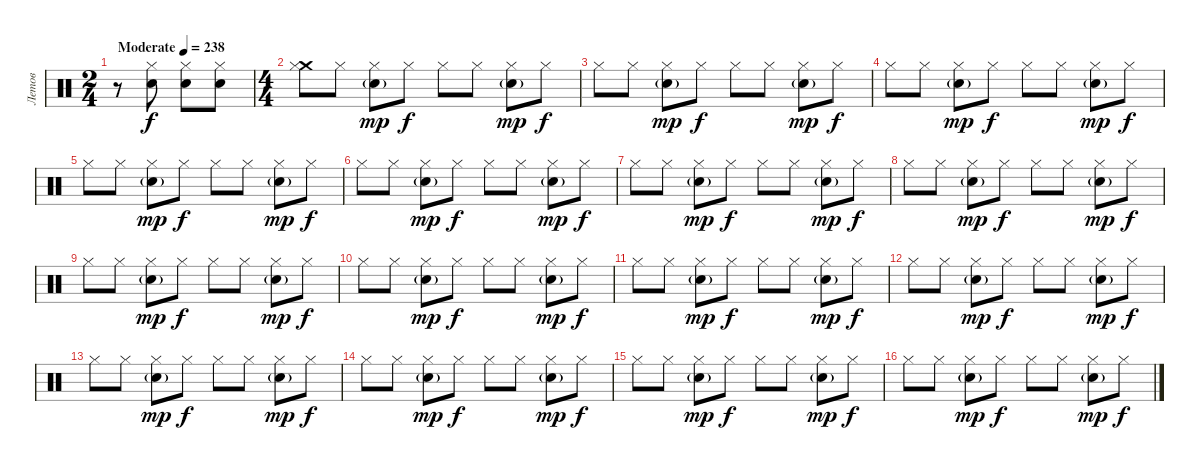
\track ("Летов" "Летов") {instrument percussion}
\staff {score}
\articulation defaults
\ts (2 4)
\tempo (238 "Moderate")
\clef neutral
\ks c
r.8{dy f} ("Hi-Hat (closed)" "Snare (hit) 2").8 ("Hi-Hat (closed)" "Snare (hit) 2").8 ("Hi-Hat (closed)" "Snare (hit) 2").8 |
\ts (4 4)
("Crash medium (hit)" "Hi-Hat (closed)").8 "Hi-Hat (closed)".8 ("Hi-Hat (closed)" "Snare (hit) 2"{g}).8{dy mp} "Hi-Hat (closed)".8{dy f} "Hi-Hat (closed)".8 "Hi-Hat (closed)".8 ("Hi-Hat (closed)" "Snare (hit) 2"{g}).8{dy mp} "Hi-Hat (closed)".8{dy f} |
"Hi-Hat (closed)".8 "Hi-Hat (closed)".8 ("Hi-Hat (closed)" "Snare (hit) 2"{g}).8{dy mp} "Hi-Hat (closed)".8{dy f} "Hi-Hat (closed)".8 "Hi-Hat (closed)".8 ("Hi-Hat (closed)" "Snare (hit) 2"{g}).8{dy mp} "Hi-Hat (closed)".8{dy f} |
"Hi-Hat (closed)".8 "Hi-Hat (closed)".8 ("Hi-Hat (closed)" "Snare (hit) 2"{g}).8{dy mp} "Hi-Hat (closed)".8{dy f} "Hi-Hat (closed)".8 "Hi-Hat (closed)".8 ("Hi-Hat (closed)" "Snare (hit) 2"{g}).8{dy mp} "Hi-Hat (closed)".8{dy f} |
"Hi-Hat (closed)".8 "Hi-Hat (closed)".8 ("Hi-Hat (closed)" "Snare (hit) 2"{g}).8{dy mp} "Hi-Hat (closed)".8{dy f} "Hi-Hat (closed)".8 "Hi-Hat (closed)".8 ("Hi-Hat (closed)" "Snare (hit) 2"{g}).8{dy mp} "Hi-Hat (closed)".8{dy f} |
"Hi-Hat (closed)".8 "Hi-Hat (closed)".8 ("Hi-Hat (closed)" "Snare (hit) 2"{g}).8{dy mp} "Hi-Hat (closed)".8{dy f} "Hi-Hat (closed)".8 "Hi-Hat (closed)".8 ("Hi-Hat (closed)" "Snare (hit) 2"{g}).8{dy mp} "Hi-Hat (closed)".8{dy f} |
"Hi-Hat (closed)".8 "Hi-Hat (closed)".8 ("Hi-Hat (closed)" "Snare (hit) 2"{g}).8{dy mp} "Hi-Hat (closed)".8{dy f} "Hi-Hat (closed)".8 "Hi-Hat (closed)".8 ("Hi-Hat (closed)" "Snare (hit) 2"{g}).8{dy mp} "Hi-Hat (closed)".8{dy f} |
"Hi-Hat (closed)".8 "Hi-Hat (closed)".8 ("Hi-Hat (closed)" "Snare (hit) 2"{g}).8{dy mp} "Hi-Hat (closed)".8{dy f} "Hi-Hat (closed)".8 "Hi-Hat (closed)".8 ("Hi-Hat (closed)" "Snare (hit) 2"{g}).8{dy mp} "Hi-Hat (closed)".8{dy f} |
"Hi-Hat (closed)".8 "Hi-Hat (closed)".8 ("Hi-Hat (closed)" "Snare (hit) 2"{g}).8{dy mp} "Hi-Hat (closed)".8{dy f} "Hi-Hat (closed)".8 "Hi-Hat (closed)".8 ("Hi-Hat (closed)" "Snare (hit) 2"{g}).8{dy mp} "Hi-Hat (closed)".8{dy f} |
"Hi-Hat (closed)".8 "Hi-Hat (closed)".8 ("Hi-Hat (closed)" "Snare (hit) 2"{g}).8{dy mp} "Hi-Hat (closed)".8{dy f} "Hi-Hat (closed)".8 "Hi-Hat (closed)".8 ("Hi-Hat (closed)" "Snare (hit) 2"{g}).8{dy mp} "Hi-Hat (closed)".8{dy f} |
"Hi-Hat (closed)".8 "Hi-Hat (closed)".8 ("Hi-Hat (closed)" "Snare (hit) 2"{g}).8{dy mp} "Hi-Hat (closed)".8{dy f} "Hi-Hat (closed)".8 "Hi-Hat (closed)".8 ("Hi-Hat (closed)" "Snare (hit) 2"{g}).8{dy mp} "Hi-Hat (closed)".8{dy f} |
"Hi-Hat (closed)".8 "Hi-Hat (closed)".8 ("Hi-Hat (closed)" "Snare (hit) 2"{g}).8{dy mp} "Hi-Hat (closed)".8{dy f} "Hi-Hat (closed)".8 "Hi-Hat (closed)".8 ("Hi-Hat (closed)" "Snare (hit) 2"{g}).8{dy mp} "Hi-Hat (closed)".8{dy f} |
"Hi-Hat (closed)".8 "Hi-Hat (closed)".8 ("Hi-Hat (closed)" "Snare (hit) 2"{g}).8{dy mp} "Hi-Hat (closed)".8{dy f} "Hi-Hat (closed)".8 "Hi-Hat (closed)".8 ("Hi-Hat (closed)" "Snare (hit) 2"{g}).8{dy mp} "Hi-Hat (closed)".8{dy f} |
"Hi-Hat (closed)".8 "Hi-Hat (closed)".8 ("Hi-Hat (closed)" "Snare (hit) 2"{g}).8{dy mp} "Hi-Hat (closed)".8{dy f} "Hi-Hat (closed)".8 "Hi-Hat (closed)".8 ("Hi-Hat (closed)" "Snare (hit) 2"{g}).8{dy mp} "Hi-Hat (closed)".8{dy f} |
"Hi-Hat (closed)".8 "Hi-Hat (closed)".8 ("Hi-Hat (closed)" "Snare (hit) 2"{g}).8{dy mp} "Hi-Hat (closed)".8{dy f} "Hi-Hat (closed)".8 "Hi-Hat (closed)".8 ("Hi-Hat (closed)" "Snare (hit) 2"{g}).8{dy mp} "Hi-Hat (closed)".8{dy f} |
"Hi-Hat (closed)".8 "Hi-Hat (closed)".8 ("Hi-Hat (closed)" "Snare (hit) 2"{g}).8{dy mp} "Hi-Hat (closed)".8{dy f} "Hi-Hat (closed)".8 "Hi-Hat (closed)".8 ("Hi-Hat (closed)" "Snare (hit) 2"{g}).8{dy mp} "Hi-Hat (closed)".8{dy f}
